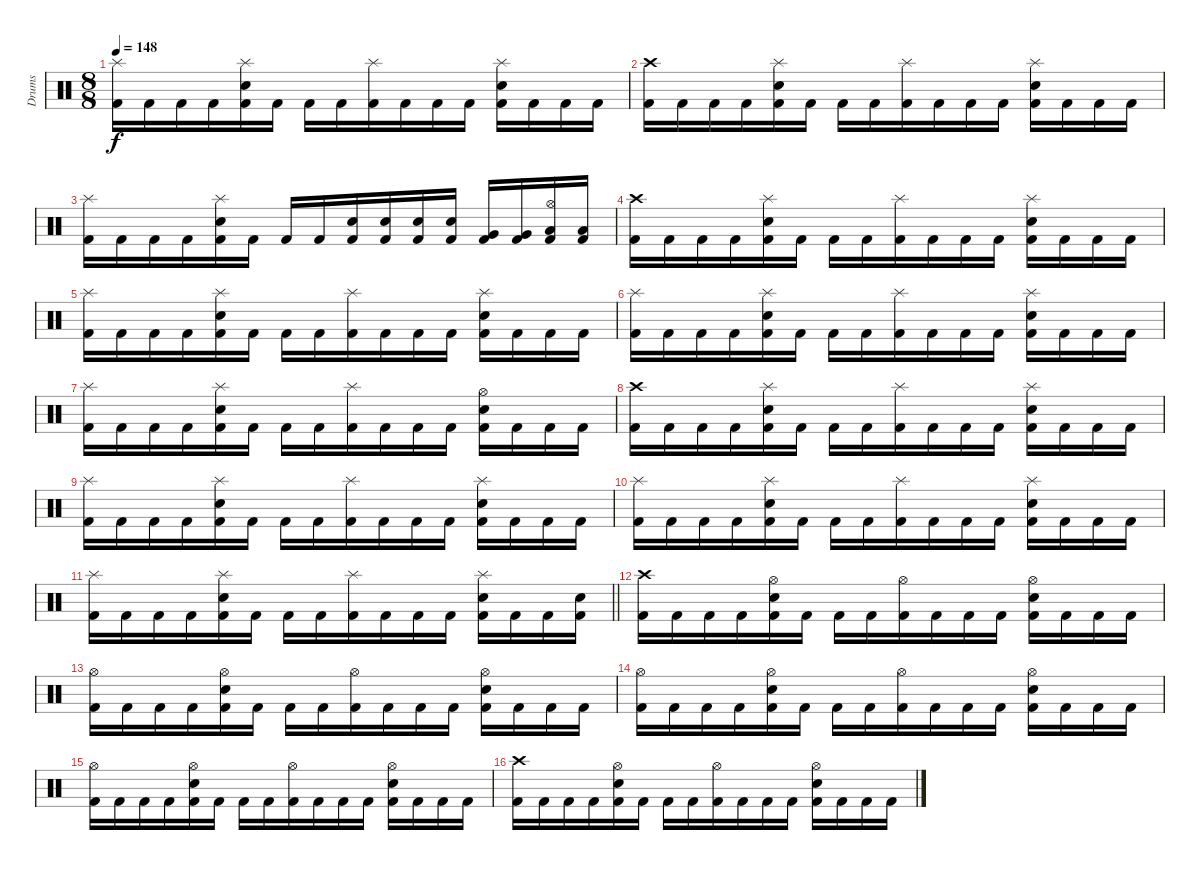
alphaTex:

\track ("Drums" "Drums") {instrument percussion}
\staff {score}
\articulation defaults
\ts (8 8)
\tempo 148
\clef neutral
\ks c
("Splash (hit)" "Kick (hit) 2").16{dy f} "Kick (hit) 2".16 "Kick (hit) 2".16 "Kick (hit) 2".16 ("Splash (hit)" "Snare (hit) 2" "Kick (hit) 2").16 "Kick (hit) 2".16 "Kick (hit) 2".16 "Kick (hit) 2".16 ("Splash (hit)" "Kick (hit) 2").16 "Kick (hit) 2".16 "Kick (hit) 2".16 "Kick (hit) 2".16 ("Splash (hit)" "Snare (hit) 2" "Kick (hit) 2").16 "Kick (hit) 2".16 "Kick (hit) 2".16 "Kick (hit) 2".16 |
("Crash high (hit)" "Kick (hit) 2").16 "Kick (hit) 2".16 "Kick (hit) 2".16 "Kick (hit) 2".16 ("Splash (hit)" "Snare (hit) 2" "Kick (hit) 2").16 "Kick (hit) 2".16 "Kick (hit) 2".16 "Kick (hit) 2".16 ("Splash (hit)" "Kick (hit) 2").16 "Kick (hit) 2".16 "Kick (hit) 2".16 "Kick (hit) 2".16 ("Splash (hit)" "Snare (hit) 2" "Kick (hit) 2").16 "Kick (hit) 2".16 "Kick (hit) 2".16 "Kick (hit) 2".16 |
("Splash (hit)" "Kick (hit) 2").16 "Kick (hit) 2".16 "Kick (hit) 2".16 "Kick (hit) 2".16 ("Splash (hit)" "Snare (hit) 2" "Kick (hit) 2").16 "Kick (hit) 2".16 "Kick (hit) 2".16 "Kick (hit) 2".16 ("Snare (hit) 2" "Kick (hit) 2").16 ("Snare (hit) 2" "Kick (hit) 2").16 ("Snare (hit) 2" "Kick (hit) 2").16 ("Snare (hit) 2" "Kick (hit) 2").16 ("Very Low Tom (hit)" "Kick (hit) 2").16 ("Very Low Tom (hit)" "Kick (hit) 2").16 ("Hi-Hat (open)" "Low Floor Tom (hit)" "Kick (hit) 2").16 ("Low Floor Tom (hit)" "Kick (hit) 2").16 |
("Crash high (hit)" "Kick (hit) 2").16 "Kick (hit) 2".16 "Kick (hit) 2".16 "Kick (hit) 2".16 ("Splash (hit)" "Snare (hit) 2" "Kick (hit) 2").16 "Kick (hit) 2".16 "Kick (hit) 2".16 "Kick (hit) 2".16 ("Splash (hit)" "Kick (hit) 2").16 "Kick (hit) 2".16 "Kick (hit) 2".16 "Kick (hit) 2".16 ("Splash (hit)" "Snare (hit) 2" "Kick (hit) 2").16 "Kick (hit) 2".16 "Kick (hit) 2".16 "Kick (hit) 2".16 |
("Splash (hit)" "Kick (hit) 2").16 "Kick (hit) 2".16 "Kick (hit) 2".16 "Kick (hit) 2".16 ("Splash (hit)" "Snare (hit) 2" "Kick (hit) 2").16 "Kick (hit) 2".16 "Kick (hit) 2".16 "Kick (hit) 2".16 ("Splash (hit)" "Kick (hit) 2").16 "Kick (hit) 2".16 "Kick (hit) 2".16 "Kick (hit) 2".16 ("Splash (hit)" "Snare (hit) 2" "Kick (hit) 2").16 "Kick (hit) 2".16 "Kick (hit) 2".16 "Kick (hit) 2".16 |
("Splash (hit)" "Kick (hit) 2").16 "Kick (hit) 2".16 "Kick (hit) 2".16 "Kick (hit) 2".16 ("Splash (hit)" "Snare (hit) 2" "Kick (hit) 2").16 "Kick (hit) 2".16 "Kick (hit) 2".16 "Kick (hit) 2".16 ("Splash (hit)" "Kick (hit) 2").16 "Kick (hit) 2".16 "Kick (hit) 2".16 "Kick (hit) 2".16 ("Splash (hit)" "Snare (hit) 2" "Kick (hit) 2").16 "Kick (hit) 2".16 "Kick (hit) 2".16 "Kick (hit) 2".16 |
("Splash (hit)" "Kick (hit) 2").16 "Kick (hit) 2".16 "Kick (hit) 2".16 "Kick (hit) 2".16 ("Splash (hit)" "Snare (hit) 2" "Kick (hit) 2").16 "Kick (hit) 2".16 "Kick (hit) 2".16 "Kick (hit) 2".16 ("Splash (hit)" "Kick (hit) 2").16 "Kick (hit) 2".16 "Kick (hit) 2".16 "Kick (hit) 2".16 ("Hi-Hat (open)" "Snare (hit) 2" "Kick (hit) 2").16 "Kick (hit) 2".16 "Kick (hit) 2".16 "Kick (hit) 2".16 |
("Crash high (hit)" "Kick (hit) 2").16 "Kick (hit) 2".16 "Kick (hit) 2".16 "Kick (hit) 2".16 ("Splash (hit)" "Snare (hit) 2" "Kick (hit) 2").16 "Kick (hit) 2".16 "Kick (hit) 2".16 "Kick (hit) 2".16 ("Splash (hit)" "Kick (hit) 2").16 "Kick (hit) 2".16 "Kick (hit) 2".16 "Kick (hit) 2".16 ("Splash (hit)" "Snare (hit) 2" "Kick (hit) 2").16 "Kick (hit) 2".16 "Kick (hit) 2".16 "Kick (hit) 2".16 |
("Splash (hit)" "Kick (hit) 2").16 "Kick (hit) 2".16 "Kick (hit) 2".16 "Kick (hit) 2".16 ("Splash (hit)" "Snare (hit) 2" "Kick (hit) 2").16 "Kick (hit) 2".16 "Kick (hit) 2".16 "Kick (hit) 2".16 ("Splash (hit)" "Kick (hit) 2").16 "Kick (hit) 2".16 "Kick (hit) 2".16 "Kick (hit) 2".16 ("Splash (hit)" "Snare (hit) 2" "Kick (hit) 2").16 "Kick (hit) 2".16 "Kick (hit) 2".16 "Kick (hit) 2".16 |
("Splash (hit)" "Kick (hit) 2").16 "Kick (hit) 2".16 "Kick (hit) 2".16 "Kick (hit) 2".16 ("Splash (hit)" "Snare (hit) 2" "Kick (hit) 2").16 "Kick (hit) 2".16 "Kick (hit) 2".16 "Kick (hit) 2".16 ("Splash (hit)" "Kick (hit) 2").16 "Kick (hit) 2".16 "Kick (hit) 2".16 "Kick (hit) 2".16 ("Splash (hit)" "Snare (hit) 2" "Kick (hit) 2").16 "Kick (hit) 2".16 "Kick (hit) 2".16 "Kick (hit) 2".16 |
\barLineRight lightlight
("Splash (hit)" "Kick (hit) 2").16 "Kick (hit) 2".16 "Kick (hit) 2".16 "Kick (hit) 2".16 ("Splash (hit)" "Snare (hit) 2" "Kick (hit) 2").16 "Kick (hit) 2".16 "Kick (hit) 2".16 "Kick (hit) 2".16 ("Splash (hit)" "Kick (hit) 2").16 "Kick (hit) 2".16 "Kick (hit) 2".16 "Kick (hit) 2".16 ("Splash (hit)" "Snare (hit) 2" "Kick (hit) 2").16 "Kick (hit) 2".16 "Kick (hit) 2".16 ("Snare (hit) 2" "Kick (hit) 2").16 |
("Crash high (hit)" "Kick (hit) 2").16 "Kick (hit) 2".16 "Kick (hit) 2".16 "Kick (hit) 2".16 ("Hi-Hat (open)" "Snare (hit) 2" "Kick (hit) 2").16 "Kick (hit) 2".16 "Kick (hit) 2".16 "Kick (hit) 2".16 ("Hi-Hat (open)" "Kick (hit) 2").16 "Kick (hit) 2".16 "Kick (hit) 2".16 "Kick (hit) 2".16 ("Hi-Hat (open)" "Snare (hit) 2" "Kick (hit) 2").16 "Kick (hit) 2".16 "Kick (hit) 2".16 "Kick (hit) 2".16 |
("Hi-Hat (open)" "Kick (hit) 2").16 "Kick (hit) 2".16 "Kick (hit) 2".16 "Kick (hit) 2".16 ("Hi-Hat (open)" "Snare (hit) 2" "Kick (hit) 2").16 "Kick (hit) 2".16 "Kick (hit) 2".16 "Kick (hit) 2".16 ("Hi-Hat (open)" "Kick (hit) 2").16 "Kick (hit) 2".16 "Kick (hit) 2".16 "Kick (hit) 2".16 ("Hi-Hat (open)" "Snare (hit) 2" "Kick (hit) 2").16 "Kick (hit) 2".16 "Kick (hit) 2".16 "Kick (hit) 2".16 |
("Hi-Hat (open)" "Kick (hit) 2").16 "Kick (hit) 2".16 "Kick (hit) 2".16 "Kick (hit) 2".16 ("Hi-Hat (open)" "Snare (hit) 2" "Kick (hit) 2").16 "Kick (hit) 2".16 "Kick (hit) 2".16 "Kick (hit) 2".16 ("Hi-Hat (open)" "Kick (hit) 2").16 "Kick (hit) 2".16 "Kick (hit) 2".16 "Kick (hit) 2".16 ("Hi-Hat (open)" "Snare (hit) 2" "Kick (hit) 2").16 "Kick (hit) 2".16 "Kick (hit) 2".16 "Kick (hit) 2".16 |
("Hi-Hat (open)" "Kick (hit) 2").16 "Kick (hit) 2".16 "Kick (hit) 2".16 "Kick (hit) 2".16 ("Hi-Hat (open)" "Snare (hit) 2" "Kick (hit) 2").16 "Kick (hit) 2".16 "Kick (hit) 2".16 "Kick (hit) 2".16 ("Hi-Hat (open)" "Kick (hit) 2").16 "Kick (hit) 2".16 "Kick (hit) 2".16 "Kick (hit) 2".16 ("Hi-Hat (open)" "Snare (hit) 2" "Kick (hit) 2").16 "Kick (hit) 2".16 "Kick (hit) 2".16 "Kick (hit) 2".16 |
("Crash high (hit)" "Kick (hit) 2").16 "Kick (hit) 2".16 "Kick (hit) 2".16 "Kick (hit) 2".16 ("Hi-Hat (open)" "Snare (hit) 2" "Kick (hit) 2").16 "Kick (hit) 2".16 "Kick (hit) 2".16 "Kick (hit) 2".16 ("Hi-Hat (open)" "Kick (hit) 2").16 "Kick (hit) 2".16 "Kick (hit) 2".16 "Kick (hit) 2".16 ("Hi-Hat (open)" "Snare (hit) 2" "Kick (hit) 2").16 "Kick (hit) 2".16 "Kick (hit) 2".16 "Kick (hit) 2".16
